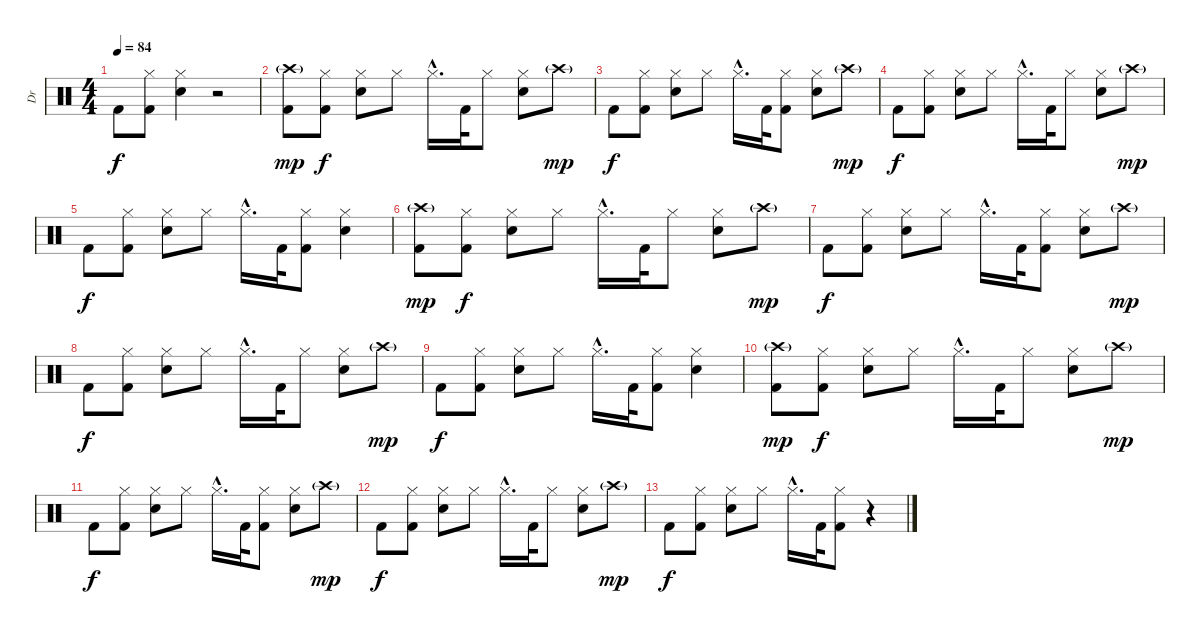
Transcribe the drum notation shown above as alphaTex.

\track ("Dr" "Dr") {instrument percussion}
\staff {score}
\articulation defaults
\ts (4 4)
\tempo 84
\clef neutral
\ks c "Kick (hit) 2".8{dy f}
("Hi-Hat (closed)" "Kick (hit) 2").8 ("Hi-Hat (closed)" "Electric Snare (hit)").4 r.2 |
("Crash high (hit)"{g} "Kick (hit) 2").8{dy mp} ("Hi-Hat (closed)" "Kick (hit) 2").8{dy f} ("Hi-Hat (closed)" "Electric Snare (hit)").8 "Hi-Hat (closed)".8 "Hi-Hat (closed)"{hac}.16{d} "Kick (hit) 2".32 "Hi-Hat (closed)".8 ("Hi-Hat (closed)" "Electric Snare (hit)").8 "Crash high (hit)"{g}.8{dy mp} |
"Kick (hit) 2".8{dy f} ("Hi-Hat (closed)" "Kick (hit) 2").8 ("Hi-Hat (closed)" "Electric Snare (hit)").8 "Hi-Hat (closed)".8 "Hi-Hat (closed)"{hac}.16{d} "Kick (hit) 2".32 ("Hi-Hat (closed)" "Kick (hit) 2").8 ("Hi-Hat (closed)" "Electric Snare (hit)").8 "Crash high (hit)"{g}.8{dy mp} |
"Kick (hit) 2".8{dy f} ("Hi-Hat (closed)" "Kick (hit) 2").8 ("Hi-Hat (closed)" "Electric Snare (hit)").8 "Hi-Hat (closed)".8 "Hi-Hat (closed)"{hac}.16{d} "Kick (hit) 2".32 "Hi-Hat (closed)".8 ("Hi-Hat (closed)" "Electric Snare (hit)").8 "Crash high (hit)"{g}.8{dy mp} |
"Kick (hit) 2".8{dy f} ("Hi-Hat (closed)" "Kick (hit) 2").8 ("Hi-Hat (closed)" "Electric Snare (hit)").8 "Hi-Hat (closed)".8 "Hi-Hat (closed)"{hac}.16{d} "Kick (hit) 2".32 ("Hi-Hat (closed)" "Kick (hit) 2").8 ("Hi-Hat (closed)" "Electric Snare (hit)").4 |
("Crash high (hit)"{g} "Kick (hit) 2").8{dy mp} ("Hi-Hat (closed)" "Kick (hit) 2").8{dy f} ("Hi-Hat (closed)" "Electric Snare (hit)").8 "Hi-Hat (closed)".8 "Hi-Hat (closed)"{hac}.16{d} "Kick (hit) 2".32 "Hi-Hat (closed)".8 ("Hi-Hat (closed)" "Electric Snare (hit)").8 "Crash high (hit)"{g}.8{dy mp} |
"Kick (hit) 2".8{dy f} ("Hi-Hat (closed)" "Kick (hit) 2").8 ("Hi-Hat (closed)" "Electric Snare (hit)").8 "Hi-Hat (closed)".8 "Hi-Hat (closed)"{hac}.16{d} "Kick (hit) 2".32 ("Hi-Hat (closed)" "Kick (hit) 2").8 ("Hi-Hat (closed)" "Electric Snare (hit)").8 "Crash high (hit)"{g}.8{dy mp} |
"Kick (hit) 2".8{dy f} ("Hi-Hat (closed)" "Kick (hit) 2").8 ("Hi-Hat (closed)" "Electric Snare (hit)").8 "Hi-Hat (closed)".8 "Hi-Hat (closed)"{hac}.16{d} "Kick (hit) 2".32 "Hi-Hat (closed)".8 ("Hi-Hat (closed)" "Electric Snare (hit)").8 "Crash high (hit)"{g}.8{dy mp} |
"Kick (hit) 2".8{dy f} ("Hi-Hat (closed)" "Kick (hit) 2").8 ("Hi-Hat (closed)" "Electric Snare (hit)").8 "Hi-Hat (closed)".8 "Hi-Hat (closed)"{hac}.16{d} "Kick (hit) 2".32 ("Hi-Hat (closed)" "Kick (hit) 2").8 ("Hi-Hat (closed)" "Electric Snare (hit)").4 |
("Crash high (hit)"{g} "Kick (hit) 2").8{dy mp} ("Hi-Hat (closed)" "Kick (hit) 2").8{dy f} ("Hi-Hat (closed)" "Electric Snare (hit)").8 "Hi-Hat (closed)".8 "Hi-Hat (closed)"{hac}.16{d} "Kick (hit) 2".32 "Hi-Hat (closed)".8 ("Hi-Hat (closed)" "Electric Snare (hit)").8 "Crash high (hit)"{g}.8{dy mp} |
"Kick (hit) 2".8{dy f} ("Hi-Hat (closed)" "Kick (hit) 2").8 ("Hi-Hat (closed)" "Electric Snare (hit)").8 "Hi-Hat (closed)".8 "Hi-Hat (closed)"{hac}.16{d} "Kick (hit) 2".32 ("Hi-Hat (closed)" "Kick (hit) 2").8 ("Hi-Hat (closed)" "Electric Snare (hit)").8 "Crash high (hit)"{g}.8{dy mp} |
"Kick (hit) 2".8{dy f} ("Hi-Hat (closed)" "Kick (hit) 2").8 ("Hi-Hat (closed)" "Electric Snare (hit)").8 "Hi-Hat (closed)".8 "Hi-Hat (closed)"{hac}.16{d} "Kick (hit) 2".32 "Hi-Hat (closed)".8 ("Hi-Hat (closed)" "Electric Snare (hit)").8 "Crash high (hit)"{g}.8{dy mp} |
"Kick (hit) 2".8{dy f} ("Hi-Hat (closed)" "Kick (hit) 2").8 ("Hi-Hat (closed)" "Electric Snare (hit)").8 "Hi-Hat (closed)".8 "Hi-Hat (closed)"{hac}.16{d} "Kick (hit) 2".32 ("Hi-Hat (closed)" "Kick (hit) 2").8 r.4
